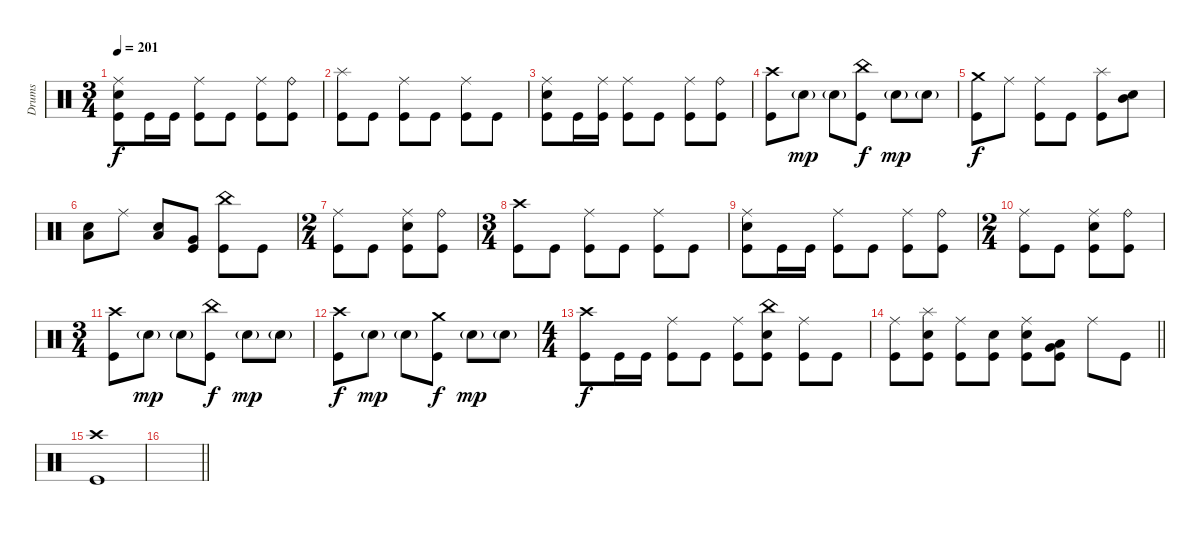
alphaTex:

\track ("Drums" "Drums") {instrument percussion}
\staff
\articulation defaults
\ts (3 4)
\tempo 201
\clef neutral
\ks c
("Ride (middle)" "Electric Snare (hit)" "Kick (hit)").8{dy f} "Kick (hit)".16 "Kick (hit)".16 ("Ride (middle)" "Kick (hit)").8 "Kick (hit)".8 ("Ride (middle)" "Kick (hit)").8 ("Ride (bell)" "Kick (hit)").8 |
("Splash (hit)" "Kick (hit)").8 "Kick (hit)".8 ("Ride (middle)" "Kick (hit)").8 "Kick (hit)".8 ("Ride (middle)" "Kick (hit)").8 "Kick (hit)".8 |
("Ride (middle)" "Electric Snare (hit)" "Kick (hit)").8 "Kick (hit)".16 ("Ride (middle)" "Kick (hit)").16 ("Ride (middle)" "Kick (hit)").8 "Kick (hit)".8 ("Ride (middle)" "Kick (hit)").8 ("Ride (bell)" "Kick (hit)").8 |
("Crash high (hit)" "Kick (hit)").8 "Electric Snare (hit)"{g}.8{dy mp} "Electric Snare (hit)"{g}.8 ("China (hit)" "Kick (hit)").8{dy f} "Electric Snare (hit)"{g}.8{dy mp} "Electric Snare (hit)"{g}.8 |
("Crash medium (hit)" "Kick (hit)").8{dy f} "Ride (middle)".8 ("Ride (middle)" "Kick (hit)").8 "Kick (hit)".8 ("Splash (hit)" "Kick (hit)").8 ("Mid Tom (hit)" "Electric Snare (hit)").8 |
("Low Tom (hit)" "Electric Snare (hit)").8 "Ride (middle)".8 ("Low Tom (hit)" "Electric Snare (hit)").8 ("Very Low Tom (hit)" "Kick (hit)").8 ("China (hit)" "Kick (hit)").8 "Kick (hit)".8 |
\ts (2 4)
("Ride (middle)" "Kick (hit)").8 "Kick (hit)".8 ("Ride (middle)" "Electric Snare (hit)" "Kick (hit)").8 ("Ride (bell)" "Kick (hit)").8 |
\ts (3 4)
("Crash high (hit)" "Kick (hit)").8 "Kick (hit)".8 ("Ride (middle)" "Kick (hit)").8 "Kick (hit)".8 ("Ride (middle)" "Kick (hit)").8 "Kick (hit)".8 |
("Ride (middle)" "Electric Snare (hit)" "Kick (hit)").8 "Kick (hit)".16 "Kick (hit)".16 ("Ride (middle)" "Kick (hit)").8 "Kick (hit)".8 ("Ride (middle)" "Kick (hit)").8 ("Ride (bell)" "Kick (hit)").8 |
\ts (2 4)
("Ride (middle)" "Kick (hit)").8 "Kick (hit)".8 ("Ride (middle)" "Electric Snare (hit)" "Kick (hit)").8 ("Ride (bell)" "Kick (hit)").8 |
\ts (3 4)
("Crash high (hit)" "Kick (hit)").8 "Electric Snare (hit)"{g}.8{dy mp} "Electric Snare (hit)"{g}.8 ("China (hit)" "Kick (hit)").8{dy f} "Electric Snare (hit)"{g}.8{dy mp} "Electric Snare (hit)"{g}.8 |
("Crash high (hit)" "Kick (hit)").8{dy f} "Electric Snare (hit)"{g}.8{dy mp} "Electric Snare (hit)"{g}.8 ("Crash medium (hit)" "Kick (hit)").8{dy f} "Electric Snare (hit)"{g}.8{dy mp} "Electric Snare (hit)"{g}.8 |
\ts (4 4)
("Crash high (hit)" "Kick (hit)").8{dy f} "Kick (hit)".16 "Kick (hit)".16 ("Ride (middle)" "Kick (hit)").8 "Kick (hit)".8 ("Ride (middle)" "Kick (hit)").8 ("China (hit)" "Electric Snare (hit)" "Kick (hit)").8 ("Ride (middle)" "Kick (hit)").8 "Kick (hit)".8 |
\barLineRight lightlight
("Ride (middle)" "Kick (hit)").8 ("Splash (hit)" "Electric Snare (hit)" "Kick (hit)").8 ("Ride (middle)" "Kick (hit)").8 ("Electric Snare (hit)" "Kick (hit)").8 ("Ride (middle)" "Electric Snare (hit)" "Kick (hit)").8 ("Very Low Tom (hit)" "Low Floor Tom (hit)" "Kick (hit)").8 "Ride (middle)".8 "Kick (hit)".8 |
("Crash high (hit)" "Kick (hit)").1 |
\barLineRight lightlight
